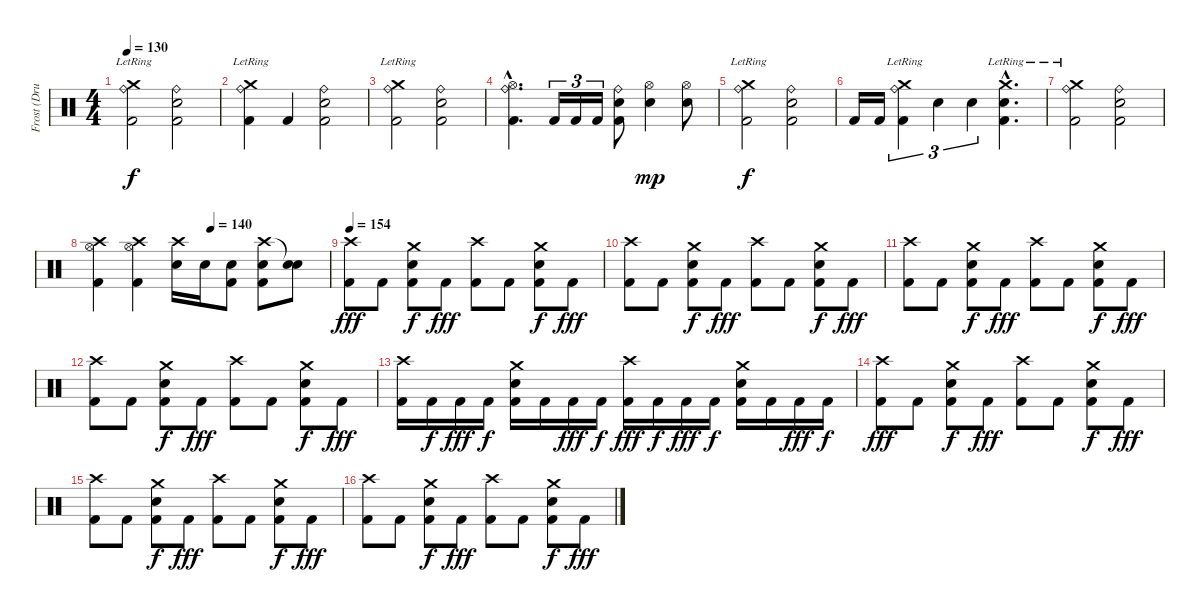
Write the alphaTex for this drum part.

\track ("Frost (Drums)" "Frost (Dru") {instrument percussion}
\staff {score}
\articulation defaults
\ts (4 4)
\tempo 130
\clef neutral
\ks c
("Ride (bell)" "Crash medium (hit)"{lr} "Kick (hit) 2").2{dy f} ("Ride (bell)" "Snare (hit) 2" "Kick (hit) 2").2 |
("Ride (bell)" "Crash medium (hit)"{lr} "Kick (hit) 2").4 "Kick (hit) 2".4 ("Ride (bell)" "Snare (hit) 2" "Kick (hit) 2").2 |
("Ride (bell)" "Crash medium (hit)"{lr} "Kick (hit) 2").2 ("Ride (bell)" "Snare (hit) 2" "Kick (hit) 2").2 |
("Ride (bell)"{hac} "Hi-Hat (open)"{hac} "Kick (hit) 2"{hac}).4{d} "Kick (hit) 2".16{tu (3 2)} "Kick (hit) 2".16{tu (3 2)} "Kick (hit) 2".16{tu (3 2)} ("Ride (bell)" "Snare (hit) 2" "Kick (hit) 2").8 ("Hi-Hat (open)" "Snare (hit) 2").4{dy mp} ("Hi-Hat (open)" "Snare (hit) 2").8 |
("Ride (bell)" "Crash medium (hit)"{lr} "Kick (hit) 2").2{dy f} ("Ride (bell)" "Snare (hit) 2" "Kick (hit) 2").2 |
"Kick (hit) 2".16 "Kick (hit) 2".16 ("Ride (bell)" "Crash medium (hit)"{lr} "Kick (hit) 2").4{tu (3 2)} "Snare (hit) 2".4{tu (3 2)} "Snare (hit) 2".4{tu (3 2)} ("Snare (hit) 2"{hac} "Crash medium (hit)"{hac lr} "Kick (hit) 2"{hac}).4{d} |
("Ride (bell)" "Crash medium (hit)"{lr} "Kick (hit) 2").2 ("Ride (bell)" "Snare (hit) 2" "Kick (hit) 2").2 |
\tempo (140 0.5)
("Hi-Hat (open)" "Crash high (hit)" "Kick (hit) 2").4 ("Hi-Hat (open)" "Crash high (hit)" "Kick (hit) 2").4 ("Crash high (hit)" "Snare (hit) 2").16 "Snare (hit) 2".16 ("Snare (hit) 2" "Kick (hit) 2").8 ("Crash high (hit)" "Snare (hit) 2" "Kick (hit) 2").8 ("Snare (hit)"{t} "Snare (hit) 2").8 |
\tempo 154
("Kick (hit) 2" "Crash high (hit)").8{dy fff} "Kick (hit) 2".8 ("Kick (hit) 2" "Snare (hit) 2" "Crash medium (hit)").8{dy f} "Kick (hit) 2".8{dy fff} ("Kick (hit) 2" "Crash high (hit)").8 "Kick (hit) 2".8 ("Kick (hit) 2" "Snare (hit) 2" "Crash medium (hit)").8{dy f} "Kick (hit) 2".8{dy fff} |
("Kick (hit) 2" "Crash high (hit)").8 "Kick (hit) 2".8 ("Kick (hit) 2" "Snare (hit) 2" "Crash medium (hit)").8{dy f} "Kick (hit) 2".8{dy fff} ("Kick (hit) 2" "Crash high (hit)").8 "Kick (hit) 2".8 ("Kick (hit) 2" "Snare (hit) 2" "Crash medium (hit)").8{dy f} "Kick (hit) 2".8{dy fff} |
("Kick (hit) 2" "Crash high (hit)").8 "Kick (hit) 2".8 ("Kick (hit) 2" "Snare (hit) 2" "Crash medium (hit)").8{dy f} "Kick (hit) 2".8{dy fff} ("Kick (hit) 2" "Crash high (hit)").8 "Kick (hit) 2".8 ("Kick (hit) 2" "Snare (hit) 2" "Crash medium (hit)").8{dy f} "Kick (hit) 2".8{dy fff} |
("Kick (hit) 2" "Crash high (hit)").8 "Kick (hit) 2".8 ("Kick (hit) 2" "Snare (hit) 2" "Crash medium (hit)").8{dy f} "Kick (hit) 2".8{dy fff} ("Kick (hit) 2" "Crash high (hit)").8 "Kick (hit) 2".8 ("Kick (hit) 2" "Snare (hit) 2" "Crash medium (hit)").8{dy f} "Kick (hit) 2".8{dy fff} |
("Kick (hit) 2" "Crash high (hit)").16 "Kick (hit) 2".16{dy f} "Kick (hit) 2".16{dy fff} "Kick (hit) 2".16{dy f} ("Kick (hit) 2" "Snare (hit) 2" "Crash medium (hit)").16 "Kick (hit) 2".16 "Kick (hit) 2".16{dy fff} "Kick (hit) 2".16{dy f} ("Kick (hit) 2" "Crash high (hit)").16{dy fff} "Kick (hit) 2".16{dy f} "Kick (hit) 2".16{dy fff} "Kick (hit) 2".16{dy f} ("Kick (hit) 2" "Snare (hit) 2" "Crash medium (hit)").16 "Kick (hit) 2".16 "Kick (hit) 2".16{dy fff} "Kick (hit) 2".16{dy f} |
("Kick (hit) 2" "Crash high (hit)").8{dy fff} "Kick (hit) 2".8 ("Kick (hit) 2" "Snare (hit) 2" "Crash medium (hit)").8{dy f} "Kick (hit) 2".8{dy fff} ("Kick (hit) 2" "Crash high (hit)").8 "Kick (hit) 2".8 ("Kick (hit) 2" "Snare (hit) 2" "Crash medium (hit)").8{dy f} "Kick (hit) 2".8{dy fff} |
("Kick (hit) 2" "Crash high (hit)").8 "Kick (hit) 2".8 ("Kick (hit) 2" "Snare (hit) 2" "Crash medium (hit)").8{dy f} "Kick (hit) 2".8{dy fff} ("Kick (hit) 2" "Crash high (hit)").8 "Kick (hit) 2".8 ("Kick (hit) 2" "Snare (hit) 2" "Crash medium (hit)").8{dy f} "Kick (hit) 2".8{dy fff} |
("Kick (hit) 2" "Crash high (hit)").8 "Kick (hit) 2".8 ("Kick (hit) 2" "Snare (hit) 2" "Crash medium (hit)").8{dy f} "Kick (hit) 2".8{dy fff} ("Kick (hit) 2" "Crash high (hit)").8 "Kick (hit) 2".8 ("Kick (hit) 2" "Snare (hit) 2" "Crash medium (hit)").8{dy f} "Kick (hit) 2".8{dy fff}
